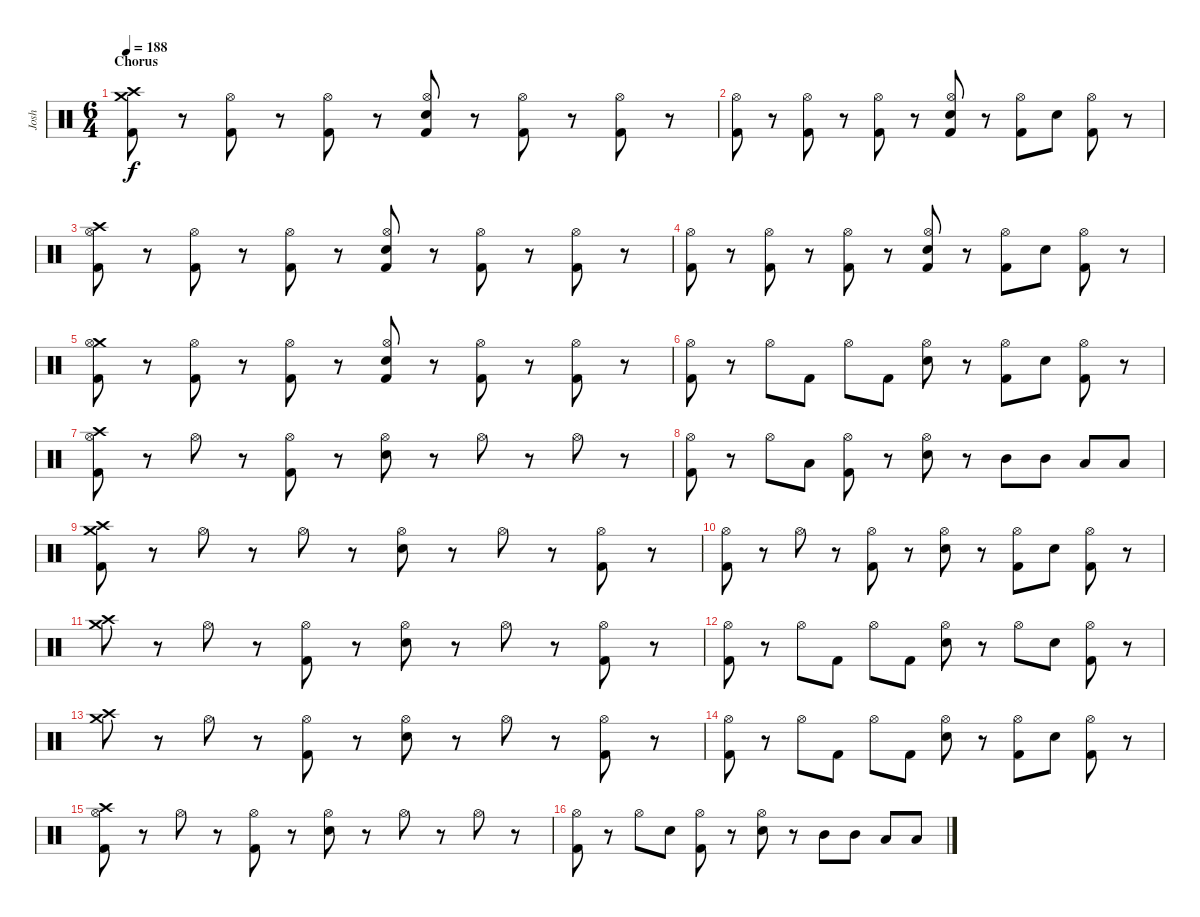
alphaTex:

\track ("Josh" "Josh") {instrument percussion}
\staff {score}
\articulation defaults
\ts (6 4)
\section ("" "Chorus")
\tempo 188
\clef neutral
\ks c
("Crash medium (hit)" "Crash high (hit)" "Kick (hit) 2").8{dy f} r.8 ("Hi-Hat (open)" "Kick (hit) 2").8 r.8 ("Hi-Hat (open)" "Kick (hit) 2").8 r.8 ("Hi-Hat (open)" "Electric Snare (hit)" "Kick (hit) 2").8 r.8 ("Hi-Hat (open)" "Kick (hit) 2").8 r.8 ("Hi-Hat (open)" "Kick (hit) 2").8 r.8 |
("Hi-Hat (open)" "Kick (hit) 2").8 r.8 ("Hi-Hat (open)" "Kick (hit) 2").8 r.8 ("Hi-Hat (open)" "Kick (hit) 2").8 r.8 ("Hi-Hat (open)" "Electric Snare (hit)" "Kick (hit) 2").8 r.8 ("Hi-Hat (open)" "Kick (hit) 2").8 "Electric Snare (hit)".8 ("Hi-Hat (open)" "Kick (hit) 2").8 r.8 |
("Crash high (hit)" "Hi-Hat (open)" "Kick (hit) 2").8 r.8 ("Hi-Hat (open)" "Kick (hit) 2").8 r.8 ("Hi-Hat (open)" "Kick (hit) 2").8 r.8 ("Hi-Hat (open)" "Electric Snare (hit)" "Kick (hit) 2").8 r.8 ("Hi-Hat (open)" "Kick (hit) 2").8 r.8 ("Hi-Hat (open)" "Kick (hit) 2").8 r.8 |
("Hi-Hat (open)" "Kick (hit) 2").8 r.8 ("Hi-Hat (open)" "Kick (hit) 2").8 r.8 ("Hi-Hat (open)" "Kick (hit) 2").8 r.8 ("Hi-Hat (open)" "Electric Snare (hit)" "Kick (hit) 2").8 r.8 ("Hi-Hat (open)" "Kick (hit) 2").8 "Electric Snare (hit)".8 ("Hi-Hat (open)" "Kick (hit) 2").8 r.8 |
("Crash medium (hit)" "Hi-Hat (open)" "Kick (hit) 2").8 r.8 ("Hi-Hat (open)" "Kick (hit) 2").8 r.8 ("Hi-Hat (open)" "Kick (hit) 2").8 r.8 ("Hi-Hat (open)" "Electric Snare (hit)" "Kick (hit) 2").8 r.8 ("Hi-Hat (open)" "Kick (hit) 2").8 r.8 ("Hi-Hat (open)" "Kick (hit) 2").8 r.8 |
("Hi-Hat (open)" "Kick (hit) 2").8 r.8 "Hi-Hat (open)".8 "Kick (hit) 2".8 "Hi-Hat (open)".8 "Kick (hit) 2".8 ("Hi-Hat (open)" "Electric Snare (hit)").8 r.8 ("Hi-Hat (open)" "Kick (hit) 2").8 "Electric Snare (hit)".8 ("Hi-Hat (open)" "Kick (hit) 2").8 r.8 |
("Crash high (hit)" "Hi-Hat (open)" "Kick (hit) 2").8 r.8 "Hi-Hat (open)".8 r.8 ("Hi-Hat (open)" "Kick (hit) 2").8 r.8 ("Hi-Hat (open)" "Electric Snare (hit)").8 r.8 "Hi-Hat (open)".8 r.8 "Hi-Hat (open)".8 r.8 |
("Hi-Hat (open)" "Kick (hit) 2").8 r.8 "Hi-Hat (open)".8 "Low Tom (hit)".8 ("Hi-Hat (open)" "Kick (hit) 2").8 r.8 ("Hi-Hat (open)" "Electric Snare (hit)").8 r.8 "Mid Tom (hit)".8 "Mid Tom (hit)".8 "Low Tom (hit)".8 "Low Tom (hit)".8 |
("Crash medium (hit)" "Crash high (hit)" "Kick (hit) 2").8 r.8 "Hi-Hat (open)".8 r.8 "Hi-Hat (open)".8 r.8 ("Hi-Hat (open)" "Electric Snare (hit)").8 r.8 "Hi-Hat (open)".8 r.8 ("Hi-Hat (open)" "Kick (hit) 2").8 r.8 |
("Hi-Hat (open)" "Kick (hit) 2").8 r.8 "Hi-Hat (open)".8 r.8 ("Hi-Hat (open)" "Kick (hit) 2").8 r.8 ("Hi-Hat (open)" "Electric Snare (hit)").8 r.8 ("Hi-Hat (open)" "Kick (hit) 2").8 "Electric Snare (hit)".8 ("Hi-Hat (open)" "Kick (hit) 2").8 r.8 |
("Crash high (hit)" "Crash medium (hit)").8 r.8 "Hi-Hat (open)".8 r.8 ("Hi-Hat (open)" "Kick (hit) 2").8 r.8 ("Hi-Hat (open)" "Electric Snare (hit)").8 r.8 "Hi-Hat (open)".8 r.8 ("Hi-Hat (open)" "Kick (hit) 2").8 r.8 |
("Hi-Hat (open)" "Kick (hit) 2").8 r.8 "Hi-Hat (open)".8 "Kick (hit) 2".8 "Hi-Hat (open)".8 "Kick (hit) 2".8 ("Hi-Hat (open)" "Electric Snare (hit)").8 r.8 "Hi-Hat (open)".8 "Electric Snare (hit)".8 ("Hi-Hat (open)" "Kick (hit) 2").8 r.8 |
("Crash medium (hit)" "Crash high (hit)").8 r.8 "Hi-Hat (open)".8 r.8 ("Hi-Hat (open)" "Kick (hit) 2").8 r.8 ("Hi-Hat (open)" "Electric Snare (hit)").8 r.8 "Hi-Hat (open)".8 r.8 ("Hi-Hat (open)" "Kick (hit) 2").8 r.8 |
("Hi-Hat (open)" "Kick (hit) 2").8 r.8 "Hi-Hat (open)".8 "Kick (hit) 2".8 "Hi-Hat (open)".8 "Kick (hit) 2".8 ("Hi-Hat (open)" "Electric Snare (hit)").8 r.8 ("Hi-Hat (open)" "Kick (hit) 2").8 "Electric Snare (hit)".8 ("Hi-Hat (open)" "Kick (hit) 2").8 r.8 |
("Crash high (hit)" "Hi-Hat (open)" "Kick (hit) 2").8 r.8 "Hi-Hat (open)".8 r.8 ("Hi-Hat (open)" "Kick (hit) 2").8 r.8 ("Hi-Hat (open)" "Electric Snare (hit)").8 r.8 "Hi-Hat (open)".8 r.8 "Hi-Hat (open)".8 r.8 |
("Hi-Hat (open)" "Kick (hit) 2").8 r.8 "Hi-Hat (open)".8 "Electric Snare (hit)".8 ("Hi-Hat (open)" "Kick (hit) 2").8 r.8 ("Hi-Hat (open)" "Electric Snare (hit)").8 r.8 "Mid Tom (hit)".8 "Mid Tom (hit)".8 "Low Tom (hit)".8 "Low Tom (hit)".8
